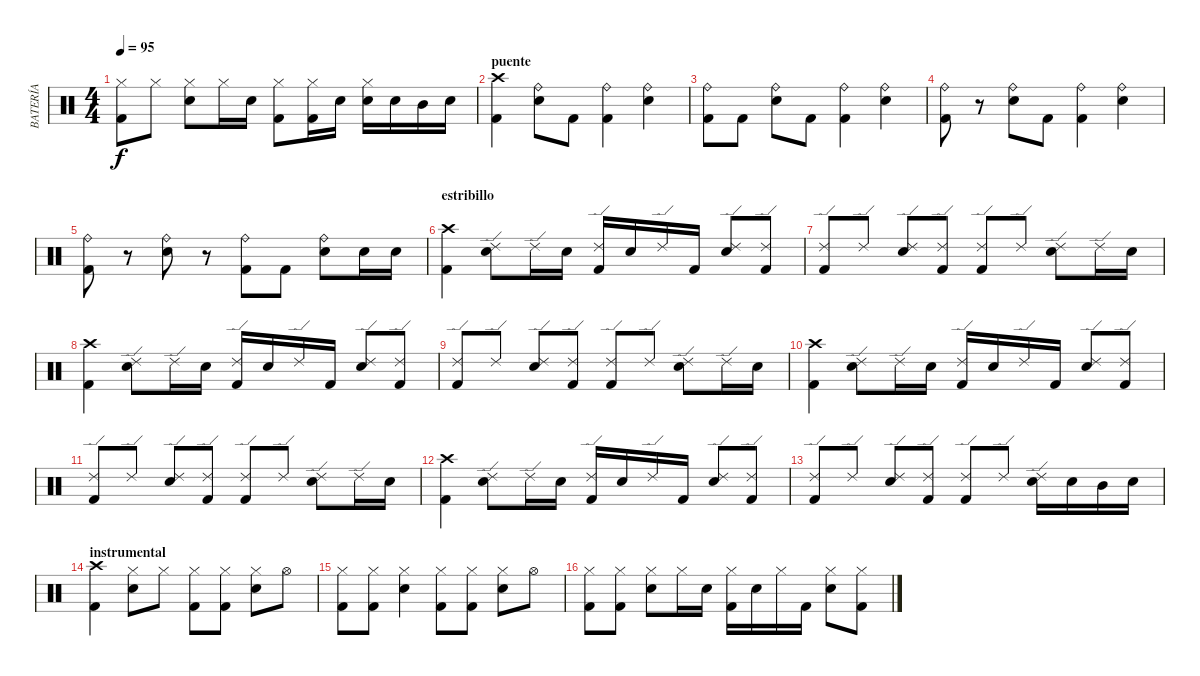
\track ("BATERÍA" "BATERÍA") {instrument percussion}
\staff {score}
\articulation defaults
\ts (4 4)
\tempo 95
\clef neutral
\ks c
("Hi-Hat (closed)" "Kick (hit) 2").8{dy f} "Hi-Hat (closed)".8 ("Hi-Hat (closed)" "Electric Snare (hit)").8 "Hi-Hat (closed)".16 "Electric Snare (hit)".16 ("Hi-Hat (closed)" "Kick (hit) 2").8 ("Hi-Hat (closed)" "Kick (hit) 2").16 "Electric Snare (hit)".16 ("Hi-Hat (closed)" "Electric Snare (hit)").16 "Electric Snare (hit)".16 "Mid Tom (hit)".16 "Electric Snare (hit)".16 |
\section ("" "puente")
("Crash high (hit)" "Kick (hit) 2").4 ("Ride (bell)" "Electric Snare (hit)").8 "Kick (hit) 2".8 ("Ride (bell)" "Kick (hit) 2").4 ("Ride (bell)" "Electric Snare (hit)").4 |
("Ride (bell)" "Kick (hit) 2").8 "Kick (hit) 2".8 ("Ride (bell)" "Electric Snare (hit)").8 "Kick (hit) 2".8 ("Ride (bell)" "Kick (hit) 2").4 ("Ride (bell)" "Electric Snare (hit)").4 |
("Ride (bell)" "Kick (hit) 2").8 r.8 ("Ride (bell)" "Electric Snare (hit)").8 "Kick (hit) 2".8 ("Ride (bell)" "Kick (hit) 2").4 ("Ride (bell)" "Electric Snare (hit)").4 |
("Ride (bell)" "Kick (hit) 2").8 r.8 ("Ride (bell)" "Electric Snare (hit)").8 r.8 ("Ride (bell)" "Kick (hit) 2").8 "Kick (hit) 2".8 ("Ride (bell)" "Electric Snare (hit)").8 "Electric Snare (hit)".16 "Electric Snare (hit)".16 |
\section ("" "estribillo")
("Kick (hit) 2" "Crash high (hit)").4 ("Ride (edge) 2" "Electric Snare (hit)").8 "Ride (edge) 2".16 "Electric Snare (hit)".16 ("Ride (edge) 2" "Kick (hit) 2").16 "Electric Snare (hit)".16 "Ride (edge) 2".16 "Kick (hit) 2".16 ("Ride (edge) 2" "Electric Snare (hit)").8 ("Ride (edge) 2" "Kick (hit) 2").8 |
("Ride (edge) 2" "Kick (hit) 2").8 "Ride (edge) 2".8 ("Ride (edge) 2" "Electric Snare (hit)").8 ("Ride (edge) 2" "Kick (hit) 2").8 ("Ride (edge) 2" "Kick (hit) 2").8 "Ride (edge) 2".8 ("Ride (edge) 2" "Electric Snare (hit)").8 "Ride (edge) 2".16 "Electric Snare (hit)".16 |
("Kick (hit) 2" "Crash high (hit)").4 ("Ride (edge) 2" "Electric Snare (hit)").8 "Ride (edge) 2".16 "Electric Snare (hit)".16 ("Ride (edge) 2" "Kick (hit) 2").16 "Electric Snare (hit)".16 "Ride (edge) 2".16 "Kick (hit) 2".16 ("Ride (edge) 2" "Electric Snare (hit)").8 ("Ride (edge) 2" "Kick (hit) 2").8 |
("Ride (edge) 2" "Kick (hit) 2").8 "Ride (edge) 2".8 ("Ride (edge) 2" "Electric Snare (hit)").8 ("Ride (edge) 2" "Kick (hit) 2").8 ("Ride (edge) 2" "Kick (hit) 2").8 "Ride (edge) 2".8 ("Ride (edge) 2" "Electric Snare (hit)").8 "Ride (edge) 2".16 "Electric Snare (hit)".16 |
("Kick (hit) 2" "Crash high (hit)").4 ("Ride (edge) 2" "Electric Snare (hit)").8 "Ride (edge) 2".16 "Electric Snare (hit)".16 ("Ride (edge) 2" "Kick (hit) 2").16 "Electric Snare (hit)".16 "Ride (edge) 2".16 "Kick (hit) 2".16 ("Ride (edge) 2" "Electric Snare (hit)").8 ("Ride (edge) 2" "Kick (hit) 2").8 |
("Ride (edge) 2" "Kick (hit) 2").8 "Ride (edge) 2".8 ("Ride (edge) 2" "Electric Snare (hit)").8 ("Ride (edge) 2" "Kick (hit) 2").8 ("Ride (edge) 2" "Kick (hit) 2").8 "Ride (edge) 2".8 ("Ride (edge) 2" "Electric Snare (hit)").8 "Ride (edge) 2".16 "Electric Snare (hit)".16 |
("Kick (hit) 2" "Crash high (hit)").4 ("Ride (edge) 2" "Electric Snare (hit)").8 "Ride (edge) 2".16 "Electric Snare (hit)".16 ("Ride (edge) 2" "Kick (hit) 2").16 "Electric Snare (hit)".16 "Ride (edge) 2".16 "Kick (hit) 2".16 ("Ride (edge) 2" "Electric Snare (hit)").8 ("Ride (edge) 2" "Kick (hit) 2").8 |
("Ride (edge) 2" "Kick (hit) 2").8 "Ride (edge) 2".8 ("Ride (edge) 2" "Electric Snare (hit)").8 ("Ride (edge) 2" "Kick (hit) 2").8 ("Ride (edge) 2" "Kick (hit) 2").8 "Ride (edge) 2".8 ("Ride (edge) 2" "Electric Snare (hit)").16 "Electric Snare (hit)".16 "Mid Tom (hit)".16 "Electric Snare (hit)".16 |
\section ("" "instrumental")
("Crash high (hit)" "Kick (hit) 2").4 ("Hi-Hat (closed)" "Electric Snare (hit)").8 "Hi-Hat (closed)".8 ("Hi-Hat (closed)" "Kick (hit) 2").8 ("Hi-Hat (closed)" "Kick (hit) 2").8 ("Hi-Hat (closed)" "Electric Snare (hit)").8 "Hi-Hat (open)".8 |
("Hi-Hat (closed)" "Kick (hit) 2").8 ("Hi-Hat (closed)" "Kick (hit) 2").8 ("Hi-Hat (closed)" "Electric Snare (hit)").4 ("Hi-Hat (closed)" "Kick (hit) 2").8 ("Hi-Hat (closed)" "Kick (hit) 2").8 ("Hi-Hat (closed)" "Electric Snare (hit)").8 "Hi-Hat (open)".8 |
("Hi-Hat (closed)" "Kick (hit) 2").8 ("Hi-Hat (closed)" "Kick (hit) 2").8 ("Hi-Hat (closed)" "Electric Snare (hit)").8 "Hi-Hat (closed)".16 "Electric Snare (hit)".16 ("Hi-Hat (closed)" "Kick (hit) 2").16 "Electric Snare (hit)".16 "Hi-Hat (closed)".16 "Kick (hit) 2".16 ("Hi-Hat (closed)" "Electric Snare (hit)").8 ("Hi-Hat (closed)" "Kick (hit) 2").8
